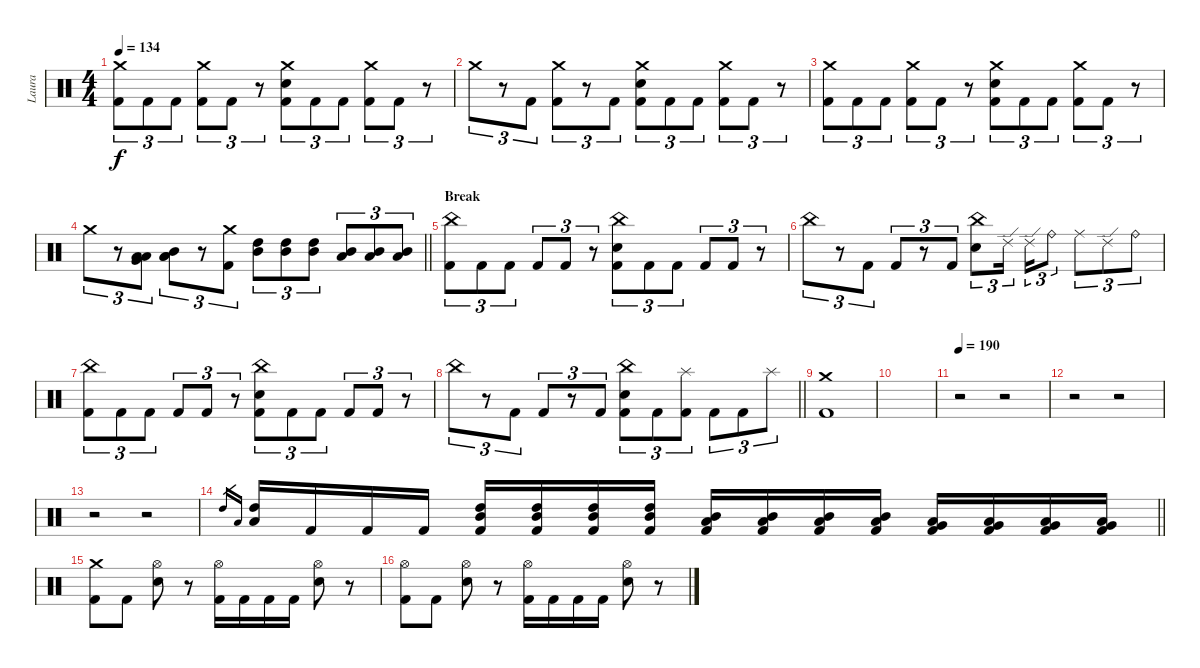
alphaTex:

\track ("Laura" "Laura") {instrument percussion}
\staff {score}
\articulation defaults
\ts (4 4)
\tempo 134
\clef neutral
\ks c
("Crash medium (hit)" "Kick (hit) 2").8{tu (3 2) dy f} "Kick (hit) 2".8{tu (3 2)} "Kick (hit) 2".8{tu (3 2)} ("Crash medium (hit)" "Kick (hit) 2").8{tu (3 2)} "Kick (hit) 2".8{tu (3 2)} r.8{tu (3 2)} ("Crash medium (hit)" "Electric Snare (hit)" "Kick (hit) 2").8{tu (3 2)} "Kick (hit) 2".8{tu (3 2)} "Kick (hit) 2".8{tu (3 2)} ("Crash medium (hit)" "Kick (hit) 2").8{tu (3 2)} "Kick (hit) 2".8{tu (3 2)} r.8{tu (3 2)} |
"Crash medium (hit)".8{tu (3 2)} r.8{tu (3 2)} "Kick (hit) 2".8{tu (3 2)} ("Crash medium (hit)" "Kick (hit) 2").8{tu (3 2)} r.8{tu (3 2)} "Kick (hit) 2".8{tu (3 2)} ("Crash medium (hit)" "Electric Snare (hit)" "Kick (hit) 2").8{tu (3 2)} "Kick (hit) 2".8{tu (3 2)} "Kick (hit) 2".8{tu (3 2)} ("Crash medium (hit)" "Kick (hit) 2").8{tu (3 2)} "Kick (hit) 2".8{tu (3 2)} r.8{tu (3 2)} |
("Crash medium (hit)" "Kick (hit) 2").8{tu (3 2)} "Kick (hit) 2".8{tu (3 2)} "Kick (hit) 2".8{tu (3 2)} ("Crash medium (hit)" "Kick (hit) 2").8{tu (3 2)} "Kick (hit) 2".8{tu (3 2)} r.8{tu (3 2)} ("Crash medium (hit)" "Electric Snare (hit)" "Kick (hit) 2").8{tu (3 2)} "Kick (hit) 2".8{tu (3 2)} "Kick (hit) 2".8{tu (3 2)} ("Crash medium (hit)" "Kick (hit) 2").8{tu (3 2)} "Kick (hit) 2".8{tu (3 2)} r.8{tu (3 2)} |
\barLineRight lightlight "Crash medium (hit)".8{tu (3 2)}
r.8{tu (3 2)} ("Very Low Tom (hit)" "Low Floor Tom (hit)" "Low Floor Tom (hit)").8{tu (3 2)} ("Mid Tom (hit)" "Low Tom (hit)" "Low Tom (hit)").8{tu (3 2)} r.8{tu (3 2)} ("Crash medium (hit)" "Kick (hit) 2").8{tu (3 2)} ("High Tom (hit)" "Mid Tom (hit)").8{tu (3 2)} ("High Tom (hit)" "Mid Tom (hit)").8{tu (3 2)} ("High Tom (hit)" "Mid Tom (hit)").8{tu (3 2)} ("Mid Tom (hit)" "Low Tom (hit)").8{tu (3 2)} ("Mid Tom (hit)" "Low Tom (hit)").8{tu (3 2)} ("Mid Tom (hit)" "Low Tom (hit)").8{tu (3 2)} |
\section ("" "Break")
("China (hit)" "Kick (hit) 2").8{tu (3 2)} "Kick (hit) 2".8{tu (3 2)} "Kick (hit) 2".8{tu (3 2)} "Kick (hit) 2".8{tu (3 2)} "Kick (hit) 2".8{tu (3 2)} r.8{tu (3 2)} ("China (hit)" "Electric Snare (hit)" "Kick (hit) 2").8{tu (3 2)} "Kick (hit) 2".8{tu (3 2)} "Kick (hit) 2".8{tu (3 2)} "Kick (hit) 2".8{tu (3 2)} "Kick (hit) 2".8{tu (3 2)} r.8{tu (3 2)} |
"China (hit)".8{tu (3 2)} r.8{tu (3 2)} "Kick (hit) 2".8{tu (3 2)} "Kick (hit) 2".8{tu (3 2)} r.8{tu (3 2)} "Kick (hit) 2".8{tu (3 2)} ("China (hit)" "Electric Snare (hit)").8{tu (3 2)} "Ride (edge) 2".16{tu (3 2) beam splitsecondary} "Ride (edge) 2".16{tu (3 2)} "Ride (bell)".8{tu (3 2)} "Ride (middle)".8{tu (3 2)} "Ride (edge) 2".8{tu (3 2)} "Ride (bell)".8{tu (3 2)} |
("China (hit)" "Kick (hit) 2").8{tu (3 2)} "Kick (hit) 2".8{tu (3 2)} "Kick (hit) 2".8{tu (3 2)} "Kick (hit) 2".8{tu (3 2)} "Kick (hit) 2".8{tu (3 2)} r.8{tu (3 2)} ("China (hit)" "Electric Snare (hit)" "Kick (hit) 2").8{tu (3 2)} "Kick (hit) 2".8{tu (3 2)} "Kick (hit) 2".8{tu (3 2)} "Kick (hit) 2".8{tu (3 2)} "Kick (hit) 2".8{tu (3 2)} r.8{tu (3 2)} |
\barLineRight lightlight "China (hit)".8{tu (3 2)}
r.8{tu (3 2)} "Kick (hit) 2".8{tu (3 2)} "Kick (hit) 2".8{tu (3 2)} r.8{tu (3 2)} "Kick (hit) 2".8{tu (3 2)} ("China (hit)" "Electric Snare (hit)" "Kick (hit) 2").8{tu (3 2)} "Kick (hit) 2".8{tu (3 2)} ("Splash (hit)" "Kick (hit) 2").8{tu (3 2)} "Kick (hit) 2".8{tu (3 2)} "Kick (hit) 2".8{tu (3 2)} "Splash (hit)".8{tu (3 2)} |
\section ("" "")
("Crash medium (hit)" "Kick (hit) 2").1 |
|
\tempo 190
r.2 r.2 |
r.2 r.2 |
r.2 r.2 |
\barLineRight lightlight "High Tom (hit)".16{gr} "Low Floor Tom (hit)".16{gr}
("High Tom (hit)" "Low Floor Tom (hit)").16 "Kick (hit) 2".16 "Kick (hit) 2".16 "Kick (hit) 2".16 ("High Tom (hit)" "Mid Tom (hit)" "Kick (hit) 2").16 ("High Tom (hit)" "Mid Tom (hit)" "Kick (hit) 2").16 ("High Tom (hit)" "Mid Tom (hit)" "Kick (hit) 2").16 ("High Tom (hit)" "Mid Tom (hit)" "Kick (hit) 2").16 ("Mid Tom (hit)" "Low Tom (hit)" "Kick (hit) 2").16 ("Mid Tom (hit)" "Low Tom (hit)" "Kick (hit) 2").16 ("Mid Tom (hit)" "Low Tom (hit)" "Kick (hit) 2").16 ("Mid Tom (hit)" "Low Tom (hit)" "Kick (hit) 2").16 ("Low Tom (hit)" "Very Low Tom (hit)" "Kick (hit) 2").16 ("Low Tom (hit)" "Very Low Tom (hit)" "Kick (hit) 2").16 ("Low Tom (hit)" "Very Low Tom (hit)" "Kick (hit) 2").16 ("Low Tom (hit)" "Very Low Tom (hit)" "Kick (hit) 2").16 |
("Crash medium (hit)" "Kick (hit) 2").8 "Kick (hit) 2".8 ("Hi-Hat (open)" "Electric Snare (hit)").8 r.8 ("Hi-Hat (open)" "Kick (hit) 2").16 "Kick (hit) 2".16 "Kick (hit) 2".16 "Kick (hit) 2".16 ("Hi-Hat (open)" "Electric Snare (hit)").8 r.8 |
("Hi-Hat (open)" "Kick (hit) 2").8 "Kick (hit) 2".8 ("Hi-Hat (open)" "Electric Snare (hit)").8 r.8 ("Hi-Hat (open)" "Kick (hit) 2").16 "Kick (hit) 2".16 "Kick (hit) 2".16 "Kick (hit) 2".16 ("Hi-Hat (open)" "Electric Snare (hit)").8 r.8
